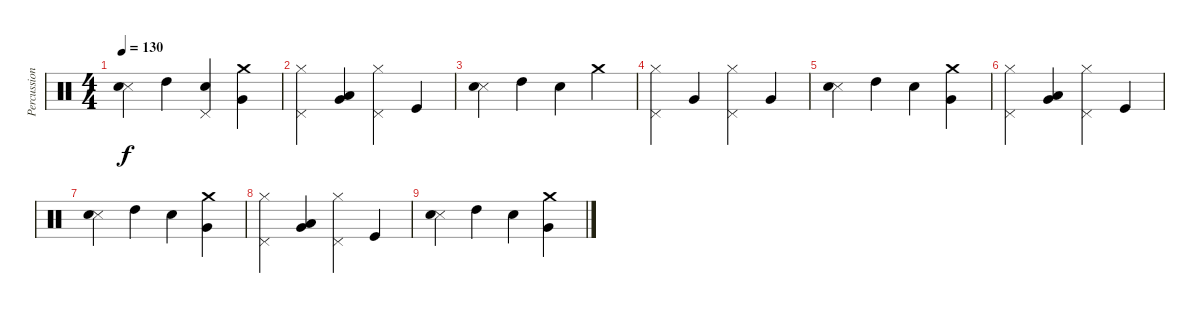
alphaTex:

\track ("Percussions" "Percussion") {instrument percussion}
\staff {score}
\articulation defaults
\ts (4 4)
\tempo 130
\clef neutral
\ks c
("Snare (side stick) 3" "Snare (hit) 2").4{dy f} "High Tom (hit)".4 ("Electric Snare (hit)" "Pedal Hi-Hat (hit)").4 ("Crash medium (hit)" "Very Low Tom (hit)").4 |
("Hi-Hat (closed)" "Pedal Hi-Hat (hit)").4 ("Low Floor Tom (hit)" "Very Low Tom (hit)").4 ("Hi-Hat (closed)" "Pedal Hi-Hat (hit)").4 "Kick (hit)".4 |
("Snare (side stick) 3" "Snare (hit) 2").4 "High Tom (hit)".4 "Electric Snare (hit)".4 "Crash medium (hit)".4 |
("Hi-Hat (closed)" "Pedal Hi-Hat (hit)").4 "Very Low Tom (hit)".4 ("Hi-Hat (closed)" "Pedal Hi-Hat (hit)").4 "Very Low Tom (hit)".4 |
("Snare (side stick) 3" "Snare (hit) 2").4 "High Tom (hit)".4 "Electric Snare (hit)".4 ("Crash medium (hit)" "Very Low Tom (hit)").4 |
("Hi-Hat (closed)" "Pedal Hi-Hat (hit)").4 ("Low Floor Tom (hit)" "Very Low Tom (hit)").4 ("Hi-Hat (closed)" "Pedal Hi-Hat (hit)").4 "Kick (hit)".4 |
("Snare (side stick) 3" "Snare (hit) 2").4 "High Tom (hit)".4 "Electric Snare (hit)".4 ("Crash medium (hit)" "Very Low Tom (hit)").4 |
("Hi-Hat (closed)" "Pedal Hi-Hat (hit)").4 ("Low Floor Tom (hit)" "Very Low Tom (hit)").4 ("Hi-Hat (closed)" "Pedal Hi-Hat (hit)").4 "Kick (hit)".4 |
("Snare (side stick) 3" "Snare (hit) 2").4 "High Tom (hit)".4 "Electric Snare (hit)".4 ("Crash medium (hit)" "Very Low Tom (hit)").4
